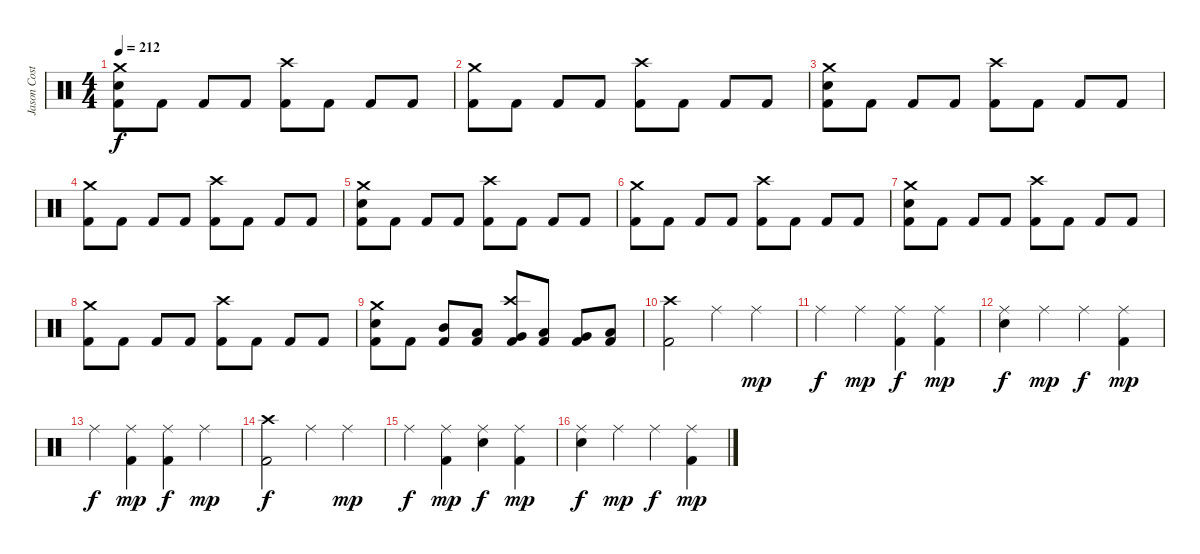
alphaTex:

\track ("Jason Costa" "Jason Cost") {instrument percussion}
\staff {score}
\articulation defaults
\ts (4 4)
\tempo 212
\clef neutral
\ks c
("Crash medium (hit)" "Electric Snare (hit)" "Kick (hit) 2").8{dy f} "Kick (hit) 2".8 "Kick (hit) 2".8 "Kick (hit) 2".8 ("Crash high (hit)" "Kick (hit) 2").8 "Kick (hit) 2".8 "Kick (hit) 2".8 "Kick (hit) 2".8 |
("Crash medium (hit)" "Kick (hit) 2").8 "Kick (hit) 2".8 "Kick (hit) 2".8 "Kick (hit) 2".8 ("Crash high (hit)" "Kick (hit) 2").8 "Kick (hit) 2".8 "Kick (hit) 2".8 "Kick (hit) 2".8 |
("Crash medium (hit)" "Electric Snare (hit)" "Kick (hit) 2").8 "Kick (hit) 2".8 "Kick (hit) 2".8 "Kick (hit) 2".8 ("Crash high (hit)" "Kick (hit) 2").8 "Kick (hit) 2".8 "Kick (hit) 2".8 "Kick (hit) 2".8 |
("Crash medium (hit)" "Kick (hit) 2").8 "Kick (hit) 2".8 "Kick (hit) 2".8 "Kick (hit) 2".8 ("Crash high (hit)" "Kick (hit) 2").8 "Kick (hit) 2".8 "Kick (hit) 2".8 "Kick (hit) 2".8 |
("Crash medium (hit)" "Electric Snare (hit)" "Kick (hit) 2").8 "Kick (hit) 2".8 "Kick (hit) 2".8 "Kick (hit) 2".8 ("Crash high (hit)" "Kick (hit) 2").8 "Kick (hit) 2".8 "Kick (hit) 2".8 "Kick (hit) 2".8 |
("Crash medium (hit)" "Kick (hit) 2").8 "Kick (hit) 2".8 "Kick (hit) 2".8 "Kick (hit) 2".8 ("Crash high (hit)" "Kick (hit) 2").8 "Kick (hit) 2".8 "Kick (hit) 2".8 "Kick (hit) 2".8 |
("Crash medium (hit)" "Electric Snare (hit)" "Kick (hit) 2").8 "Kick (hit) 2".8 "Kick (hit) 2".8 "Kick (hit) 2".8 ("Crash high (hit)" "Kick (hit) 2").8 "Kick (hit) 2".8 "Kick (hit) 2".8 "Kick (hit) 2".8 |
("Crash medium (hit)" "Kick (hit) 2").8 "Kick (hit) 2".8 "Kick (hit) 2".8 "Kick (hit) 2".8 ("Crash high (hit)" "Kick (hit) 2").8 "Kick (hit) 2".8 "Kick (hit) 2".8 "Kick (hit) 2".8 |
("Crash medium (hit)" "Electric Snare (hit)" "Kick (hit) 2").8 "Kick (hit) 2".8 ("Mid Tom (hit)" "Kick (hit) 2").8 ("Low Tom (hit)" "Kick (hit) 2").8 ("Crash high (hit)" "Very Low Tom (hit)" "Kick (hit) 2").8 ("Low Tom (hit)" "Kick (hit) 2").8 ("Very Low Tom (hit)" "Kick (hit) 2").8 ("Low Floor Tom (hit)" "Kick (hit) 2").8 |
("Crash high (hit)" "Kick (hit) 2").2 "Ride (middle)".4 "Ride (middle)".4{dy mp} |
"Ride (middle)".4{dy f} "Ride (middle)".4{dy mp} ("Ride (middle)" "Kick (hit) 2").4{dy f} ("Ride (middle)" "Kick (hit) 2").4{dy mp} |
("Ride (middle)" "Electric Snare (hit)").4{dy f} "Ride (middle)".4{dy mp} "Ride (middle)".4{dy f} ("Ride (middle)" "Kick (hit) 2").4{dy mp} |
"Ride (middle)".4{dy f} ("Ride (middle)" "Kick (hit) 2").4{dy mp} ("Ride (middle)" "Kick (hit) 2").4{dy f} "Ride (middle)".4{dy mp} |
("Crash high (hit)" "Kick (hit) 2").2{dy f} "Ride (middle)".4 "Ride (middle)".4{dy mp} |
"Ride (middle)".4{dy f} ("Ride (middle)" "Kick (hit) 2").4{dy mp} ("Ride (middle)" "Electric Snare (hit)").4{dy f} ("Ride (middle)" "Kick (hit) 2").4{dy mp} |
("Ride (middle)" "Electric Snare (hit)").4{dy f} "Ride (middle)".4{dy mp} "Ride (middle)".4{dy f} ("Ride (middle)" "Kick (hit) 2").4{dy mp}
